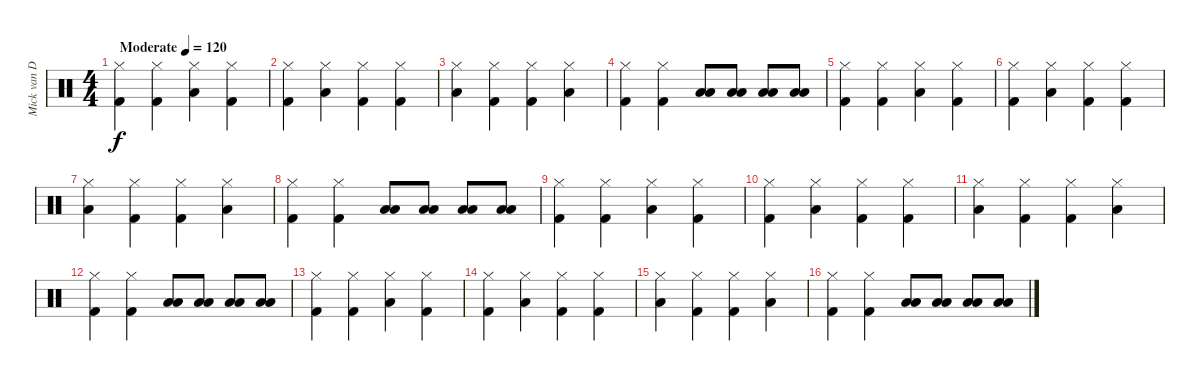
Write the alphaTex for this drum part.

\track ("Mick van Doorn" "Mick van D") {instrument percussion}
\staff {score}
\articulation defaults
\ts (4 4)
\tempo (120 "Moderate")
\clef neutral
\ks c
("Kick (hit) 2" "Hi-Hat (closed)").4{dy f} ("Kick (hit) 2" "Hi-Hat (closed)").4 ("Low Floor Tom (hit)" "Hi-Hat (closed)").4 ("Kick (hit) 2" "Hi-Hat (closed)").4 |
("Kick (hit) 2" "Hi-Hat (closed)").4 ("Low Floor Tom (hit)" "Hi-Hat (closed)").4 ("Kick (hit) 2" "Hi-Hat (closed)").4 ("Kick (hit) 2" "Hi-Hat (closed)").4 |
("Low Floor Tom (hit)" "Hi-Hat (closed)").4 ("Kick (hit) 2" "Hi-Hat (closed)").4 ("Kick (hit) 2" "Hi-Hat (closed)").4 ("Low Floor Tom (hit)" "Hi-Hat (closed)").4 |
("Kick (hit) 2" "Hi-Hat (closed)").4 ("Kick (hit) 2" "Hi-Hat (closed)").4 ("Low Floor Tom (hit)" "Low Floor Tom (hit)").8 ("Low Floor Tom (hit)" "Low Floor Tom (hit)").8 ("Low Floor Tom (hit)" "Low Floor Tom (hit)").8 ("Low Floor Tom (hit)" "Low Floor Tom (hit)").8 |
("Kick (hit) 2" "Hi-Hat (closed)").4 ("Kick (hit) 2" "Hi-Hat (closed)").4 ("Low Floor Tom (hit)" "Hi-Hat (closed)").4 ("Kick (hit) 2" "Hi-Hat (closed)").4 |
("Kick (hit) 2" "Hi-Hat (closed)").4 ("Low Floor Tom (hit)" "Hi-Hat (closed)").4 ("Kick (hit) 2" "Hi-Hat (closed)").4 ("Kick (hit) 2" "Hi-Hat (closed)").4 |
("Low Floor Tom (hit)" "Hi-Hat (closed)").4 ("Kick (hit) 2" "Hi-Hat (closed)").4 ("Kick (hit) 2" "Hi-Hat (closed)").4 ("Low Floor Tom (hit)" "Hi-Hat (closed)").4 |
("Kick (hit) 2" "Hi-Hat (closed)").4 ("Kick (hit) 2" "Hi-Hat (closed)").4 ("Low Floor Tom (hit)" "Low Floor Tom (hit)").8 ("Low Floor Tom (hit)" "Low Floor Tom (hit)").8 ("Low Floor Tom (hit)" "Low Floor Tom (hit)").8 ("Low Floor Tom (hit)" "Low Floor Tom (hit)").8 |
("Kick (hit) 2" "Hi-Hat (closed)").4 ("Kick (hit) 2" "Hi-Hat (closed)").4 ("Low Floor Tom (hit)" "Hi-Hat (closed)").4 ("Kick (hit) 2" "Hi-Hat (closed)").4 |
("Kick (hit) 2" "Hi-Hat (closed)").4 ("Low Floor Tom (hit)" "Hi-Hat (closed)").4 ("Kick (hit) 2" "Hi-Hat (closed)").4 ("Kick (hit) 2" "Hi-Hat (closed)").4 |
("Low Floor Tom (hit)" "Hi-Hat (closed)").4 ("Kick (hit) 2" "Hi-Hat (closed)").4 ("Kick (hit) 2" "Hi-Hat (closed)").4 ("Low Floor Tom (hit)" "Hi-Hat (closed)").4 |
("Kick (hit) 2" "Hi-Hat (closed)").4 ("Kick (hit) 2" "Hi-Hat (closed)").4 ("Low Floor Tom (hit)" "Low Floor Tom (hit)").8 ("Low Floor Tom (hit)" "Low Floor Tom (hit)").8 ("Low Floor Tom (hit)" "Low Floor Tom (hit)").8 ("Low Floor Tom (hit)" "Low Floor Tom (hit)").8 |
("Kick (hit) 2" "Hi-Hat (closed)").4 ("Kick (hit) 2" "Hi-Hat (closed)").4 ("Low Floor Tom (hit)" "Hi-Hat (closed)").4 ("Kick (hit) 2" "Hi-Hat (closed)").4 |
("Kick (hit) 2" "Hi-Hat (closed)").4 ("Low Floor Tom (hit)" "Hi-Hat (closed)").4 ("Kick (hit) 2" "Hi-Hat (closed)").4 ("Kick (hit) 2" "Hi-Hat (closed)").4 |
("Low Floor Tom (hit)" "Hi-Hat (closed)").4 ("Kick (hit) 2" "Hi-Hat (closed)").4 ("Kick (hit) 2" "Hi-Hat (closed)").4 ("Low Floor Tom (hit)" "Hi-Hat (closed)").4 |
("Kick (hit) 2" "Hi-Hat (closed)").4 ("Kick (hit) 2" "Hi-Hat (closed)").4 ("Low Floor Tom (hit)" "Low Floor Tom (hit)").8 ("Low Floor Tom (hit)" "Low Floor Tom (hit)").8 ("Low Floor Tom (hit)" "Low Floor Tom (hit)").8 ("Low Floor Tom (hit)" "Low Floor Tom (hit)").8
